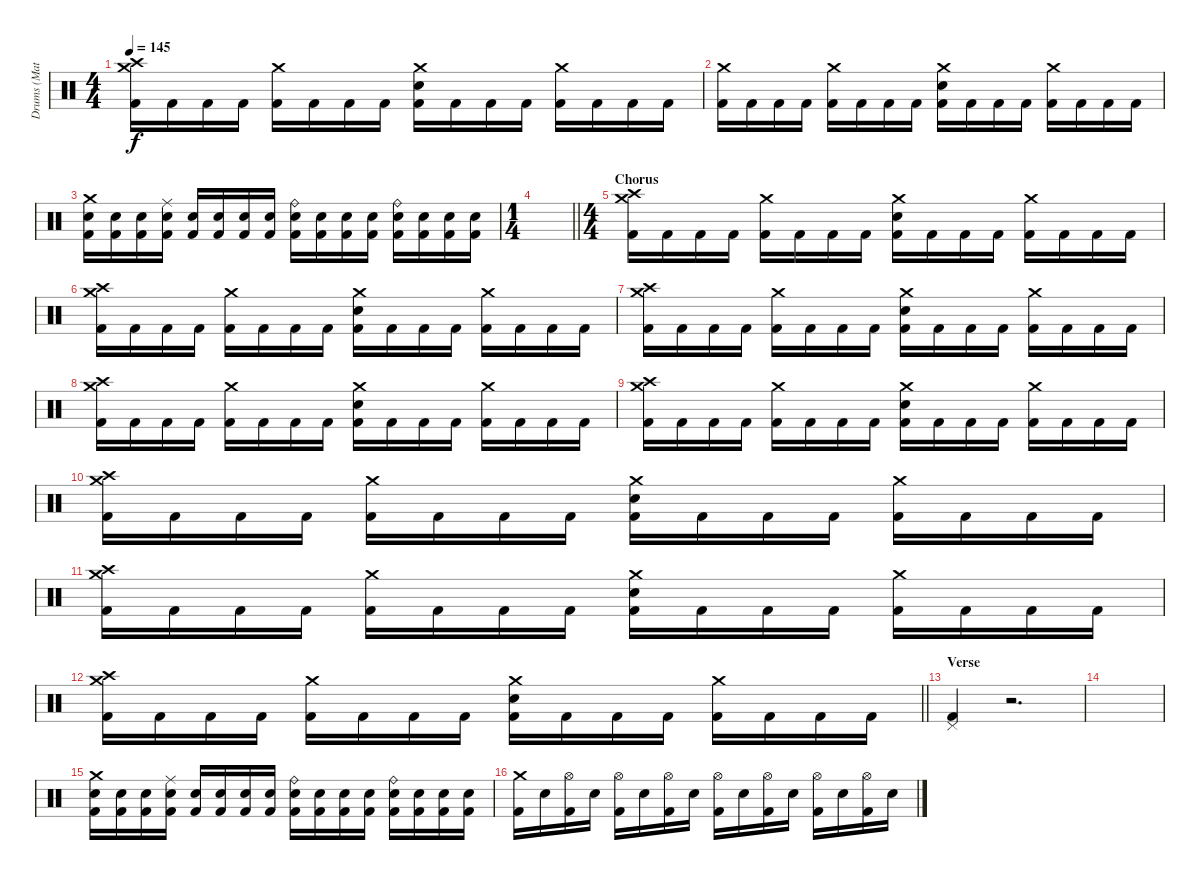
\track ("Drums (Matt Kuykendall)" "Drums (Mat") {instrument percussion}
\staff {score}
\articulation defaults
\ts (4 4)
\tempo 145
\clef neutral
\ks c
("Crash medium (hit)" "Crash high (hit)" "Kick (hit) 2").16{dy f} "Kick (hit) 2".16 "Kick (hit) 2".16 "Kick (hit) 2".16 ("Crash medium (hit)" "Kick (hit) 2").16 "Kick (hit) 2".16 "Kick (hit) 2".16 "Kick (hit) 2".16 ("Crash medium (hit)" "Electric Snare (hit)" "Kick (hit) 2").16 "Kick (hit) 2".16 "Kick (hit) 2".16 "Kick (hit) 2".16 ("Crash medium (hit)" "Kick (hit) 2").16 "Kick (hit) 2".16 "Kick (hit) 2".16 "Kick (hit) 2".16 |
("Crash medium (hit)" "Kick (hit) 2").16 "Kick (hit) 2".16 "Kick (hit) 2".16 "Kick (hit) 2".16 ("Crash medium (hit)" "Kick (hit) 2").16 "Kick (hit) 2".16 "Kick (hit) 2".16 "Kick (hit) 2".16 ("Crash medium (hit)" "Electric Snare (hit)" "Kick (hit) 2").16 "Kick (hit) 2".16 "Kick (hit) 2".16 "Kick (hit) 2".16 ("Crash medium (hit)" "Kick (hit) 2").16 "Kick (hit) 2".16 "Kick (hit) 2".16 "Kick (hit) 2".16 |
("Crash medium (hit)" "Electric Snare (hit)" "Kick (hit) 2").16 ("Electric Snare (hit)" "Kick (hit) 2").16 ("Electric Snare (hit)" "Kick (hit) 2").16 ("Ride (middle)" "Electric Snare (hit)" "Kick (hit) 2").16 ("Electric Snare (hit)" "Kick (hit) 2").16 ("Electric Snare (hit)" "Kick (hit) 2").16 ("Electric Snare (hit)" "Kick (hit) 2").16 ("Electric Snare (hit)" "Kick (hit) 2").16 ("Ride (bell)" "Electric Snare (hit)" "Kick (hit) 2").16 ("Electric Snare (hit)" "Kick (hit) 2").16 ("Electric Snare (hit)" "Kick (hit) 2").16 ("Electric Snare (hit)" "Kick (hit) 2").16 ("Ride (bell)" "Electric Snare (hit)" "Kick (hit) 2").16 ("Electric Snare (hit)" "Kick (hit) 2").16 ("Electric Snare (hit)" "Kick (hit) 2").16 ("Electric Snare (hit)" "Kick (hit) 2").16 |
\ts (1 4)
\barLineRight lightlight
|
\ts (4 4)
\section ("" "Chorus")
("Crash medium (hit)" "Crash high (hit)" "Kick (hit) 2").16 "Kick (hit) 2".16 "Kick (hit) 2".16 "Kick (hit) 2".16 ("Crash medium (hit)" "Kick (hit) 2").16 "Kick (hit) 2".16 "Kick (hit) 2".16 "Kick (hit) 2".16 ("Crash medium (hit)" "Electric Snare (hit)" "Kick (hit) 2").16 "Kick (hit) 2".16 "Kick (hit) 2".16 "Kick (hit) 2".16 ("Crash medium (hit)" "Kick (hit) 2").16 "Kick (hit) 2".16 "Kick (hit) 2".16 "Kick (hit) 2".16 |
("Crash medium (hit)" "Crash high (hit)" "Kick (hit) 2").16 "Kick (hit) 2".16 "Kick (hit) 2".16 "Kick (hit) 2".16 ("Crash medium (hit)" "Kick (hit) 2").16 "Kick (hit) 2".16 "Kick (hit) 2".16 "Kick (hit) 2".16 ("Crash medium (hit)" "Electric Snare (hit)" "Kick (hit) 2").16 "Kick (hit) 2".16 "Kick (hit) 2".16 "Kick (hit) 2".16 ("Crash medium (hit)" "Kick (hit) 2").16 "Kick (hit) 2".16 "Kick (hit) 2".16 "Kick (hit) 2".16 |
("Crash medium (hit)" "Crash high (hit)" "Kick (hit) 2").16 "Kick (hit) 2".16 "Kick (hit) 2".16 "Kick (hit) 2".16 ("Crash medium (hit)" "Kick (hit) 2").16 "Kick (hit) 2".16 "Kick (hit) 2".16 "Kick (hit) 2".16 ("Crash medium (hit)" "Electric Snare (hit)" "Kick (hit) 2").16 "Kick (hit) 2".16 "Kick (hit) 2".16 "Kick (hit) 2".16 ("Crash medium (hit)" "Kick (hit) 2").16 "Kick (hit) 2".16 "Kick (hit) 2".16 "Kick (hit) 2".16 |
("Crash medium (hit)" "Crash high (hit)" "Kick (hit) 2").16 "Kick (hit) 2".16 "Kick (hit) 2".16 "Kick (hit) 2".16 ("Crash medium (hit)" "Kick (hit) 2").16 "Kick (hit) 2".16 "Kick (hit) 2".16 "Kick (hit) 2".16 ("Crash medium (hit)" "Electric Snare (hit)" "Kick (hit) 2").16 "Kick (hit) 2".16 "Kick (hit) 2".16 "Kick (hit) 2".16 ("Crash medium (hit)" "Kick (hit) 2").16 "Kick (hit) 2".16 "Kick (hit) 2".16 "Kick (hit) 2".16 |
("Crash medium (hit)" "Crash high (hit)" "Kick (hit) 2").16 "Kick (hit) 2".16 "Kick (hit) 2".16 "Kick (hit) 2".16 ("Crash medium (hit)" "Kick (hit) 2").16 "Kick (hit) 2".16 "Kick (hit) 2".16 "Kick (hit) 2".16 ("Crash medium (hit)" "Electric Snare (hit)" "Kick (hit) 2").16 "Kick (hit) 2".16 "Kick (hit) 2".16 "Kick (hit) 2".16 ("Crash medium (hit)" "Kick (hit) 2").16 "Kick (hit) 2".16 "Kick (hit) 2".16 "Kick (hit) 2".16 |
("Crash medium (hit)" "Crash high (hit)" "Kick (hit) 2").16 "Kick (hit) 2".16 "Kick (hit) 2".16 "Kick (hit) 2".16 ("Crash medium (hit)" "Kick (hit) 2").16 "Kick (hit) 2".16 "Kick (hit) 2".16 "Kick (hit) 2".16 ("Crash medium (hit)" "Electric Snare (hit)" "Kick (hit) 2").16 "Kick (hit) 2".16 "Kick (hit) 2".16 "Kick (hit) 2".16 ("Crash medium (hit)" "Kick (hit) 2").16 "Kick (hit) 2".16 "Kick (hit) 2".16 "Kick (hit) 2".16 |
("Crash medium (hit)" "Crash high (hit)" "Kick (hit) 2").16 "Kick (hit) 2".16 "Kick (hit) 2".16 "Kick (hit) 2".16 ("Crash medium (hit)" "Kick (hit) 2").16 "Kick (hit) 2".16 "Kick (hit) 2".16 "Kick (hit) 2".16 ("Crash medium (hit)" "Electric Snare (hit)" "Kick (hit) 2").16 "Kick (hit) 2".16 "Kick (hit) 2".16 "Kick (hit) 2".16 ("Crash medium (hit)" "Kick (hit) 2").16 "Kick (hit) 2".16 "Kick (hit) 2".16 "Kick (hit) 2".16 |
\barLineRight lightlight
("Crash medium (hit)" "Crash high (hit)" "Kick (hit) 2").16 "Kick (hit) 2".16 "Kick (hit) 2".16 "Kick (hit) 2".16 ("Crash medium (hit)" "Kick (hit) 2").16 "Kick (hit) 2".16 "Kick (hit) 2".16 "Kick (hit) 2".16 ("Crash medium (hit)" "Electric Snare (hit)" "Kick (hit) 2").16 "Kick (hit) 2".16 "Kick (hit) 2".16 "Kick (hit) 2".16 ("Crash medium (hit)" "Kick (hit) 2").16 "Kick (hit) 2".16 "Kick (hit) 2".16 "Kick (hit) 2".16 |
\section ("" "Verse")
("Pedal Hi-Hat (hit)" "Kick (hit) 2").4 r.2{d} |
|
("Crash medium (hit)" "Electric Snare (hit)" "Kick (hit) 2").16 ("Electric Snare (hit)" "Kick (hit) 2").16 ("Electric Snare (hit)" "Kick (hit) 2").16 ("Ride (middle)" "Electric Snare (hit)" "Kick (hit) 2").16 ("Electric Snare (hit)" "Kick (hit) 2").16 ("Electric Snare (hit)" "Kick (hit) 2").16 ("Electric Snare (hit)" "Kick (hit) 2").16 ("Electric Snare (hit)" "Kick (hit) 2").16 ("Ride (bell)" "Electric Snare (hit)" "Kick (hit) 2").16 ("Electric Snare (hit)" "Kick (hit) 2").16 ("Electric Snare (hit)" "Kick (hit) 2").16 ("Electric Snare (hit)" "Kick (hit) 2").16 ("Ride (bell)" "Electric Snare (hit)" "Kick (hit) 2").16 ("Electric Snare (hit)" "Kick (hit) 2").16 ("Electric Snare (hit)" "Kick (hit) 2").16 ("Electric Snare (hit)" "Kick (hit) 2").16 |
("Crash medium (hit)" "Kick (hit) 2").16 "Electric Snare (hit)".16 ("Hi-Hat (open)" "Kick (hit) 2").16 "Electric Snare (hit)".16 ("Hi-Hat (open)" "Kick (hit) 2").16 "Electric Snare (hit)".16 ("Hi-Hat (open)" "Kick (hit) 2").16 "Electric Snare (hit)".16 ("Hi-Hat (open)" "Kick (hit) 2").16 "Electric Snare (hit)".16 ("Hi-Hat (open)" "Kick (hit) 2").16 "Electric Snare (hit)".16 ("Hi-Hat (open)" "Kick (hit) 2").16 "Electric Snare (hit)".16 ("Hi-Hat (open)" "Kick (hit) 2").16 "Electric Snare (hit)".16
